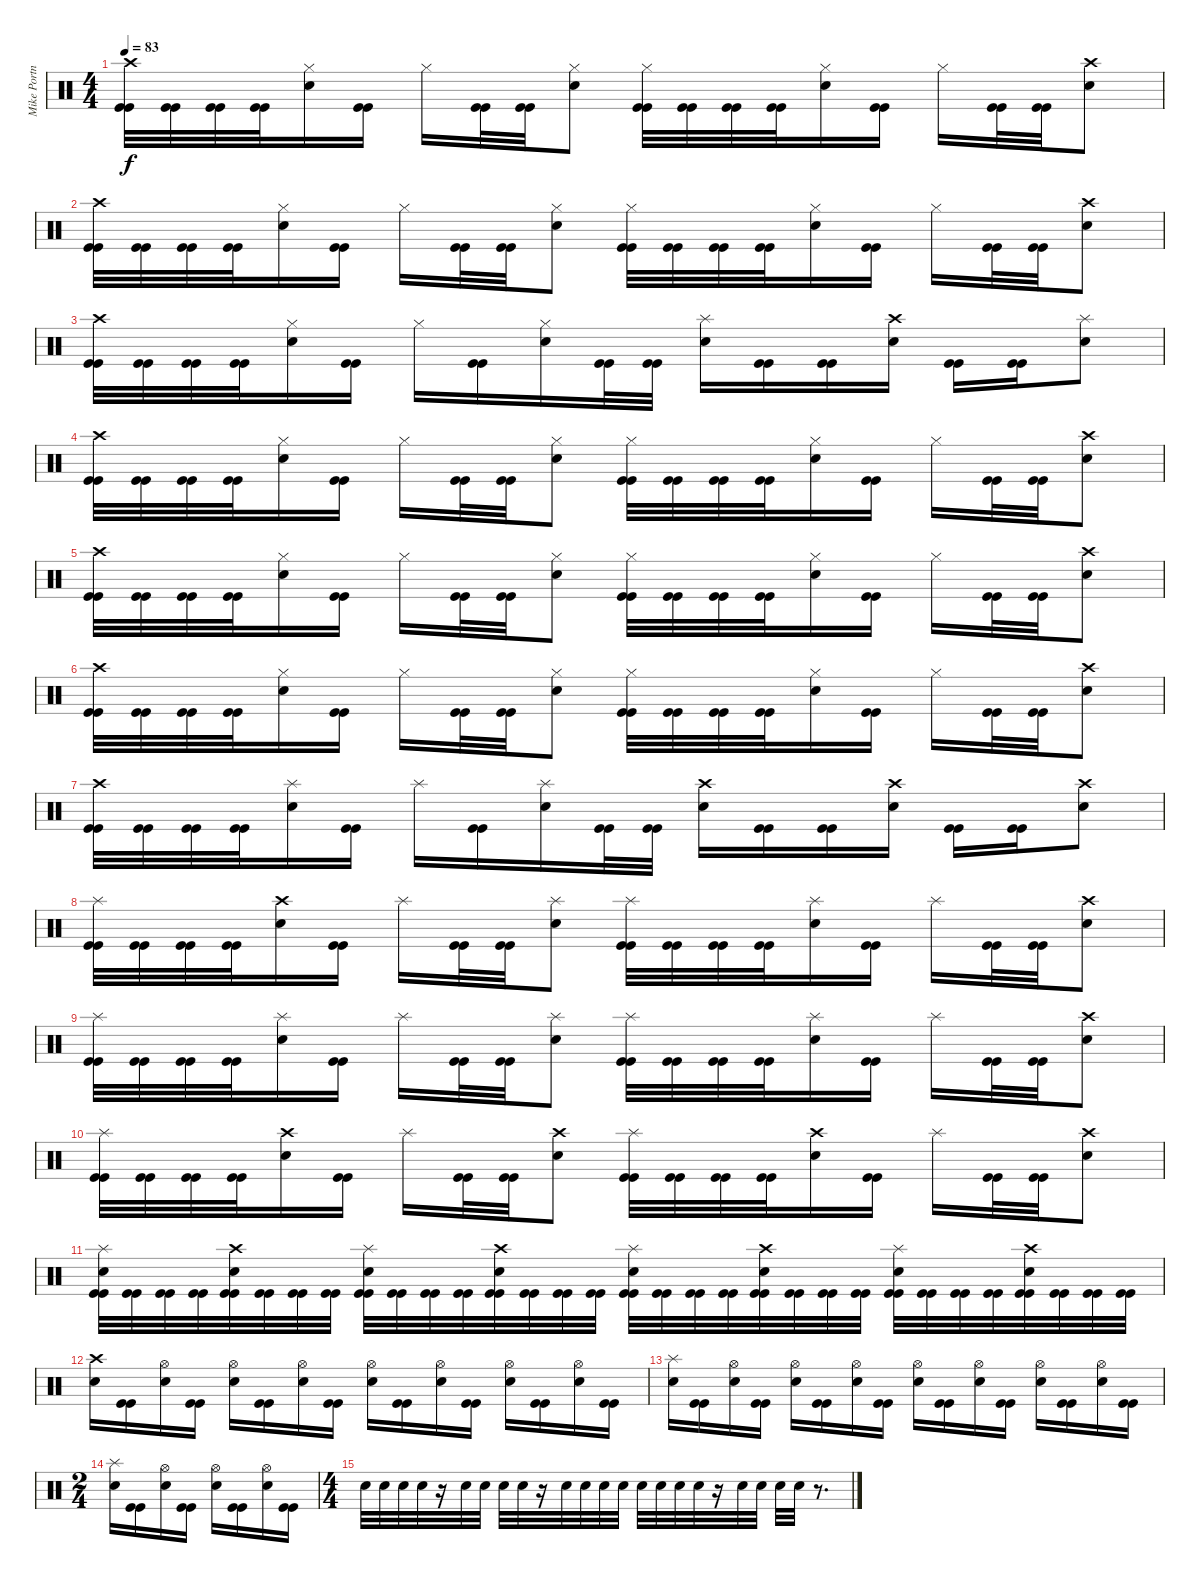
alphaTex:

\track ("Mike Portnoy - Drum" "Mike Portn") {instrument percussion}
\staff {score}
\articulation defaults
\ts (4 4)
\tempo 83
\clef neutral
\ks c
("Crash high (hit)" "Kick (hit)" "Kick (hit)").32{dy f} ("Kick (hit)" "Kick (hit)").32 ("Kick (hit)" "Kick (hit)").32 ("Kick (hit)" "Kick (hit)").32 ("Hi-Hat (closed)" "Snare (hit) 2").16 ("Kick (hit)" "Kick (hit)").16 "Hi-Hat (closed)".16 ("Kick (hit)" "Kick (hit)").32 ("Kick (hit)" "Kick (hit)").32 ("Hi-Hat (closed)" "Snare (hit) 2").8 ("Hi-Hat (closed)" "Kick (hit)" "Kick (hit)").32 ("Kick (hit)" "Kick (hit)").32 ("Kick (hit)" "Kick (hit)").32 ("Kick (hit)" "Kick (hit)").32 ("Hi-Hat (closed)" "Snare (hit) 2").16 ("Kick (hit)" "Kick (hit)").16 "Hi-Hat (closed)".16 ("Kick (hit)" "Kick (hit)").32 ("Kick (hit)" "Kick (hit)").32 ("Crash high (hit)" "Snare (hit) 2").8 |
("Crash high (hit)" "Kick (hit)" "Kick (hit)").32 ("Kick (hit)" "Kick (hit)").32 ("Kick (hit)" "Kick (hit)").32 ("Kick (hit)" "Kick (hit)").32 ("Hi-Hat (closed)" "Snare (hit) 2").16 ("Kick (hit)" "Kick (hit)").16 "Hi-Hat (closed)".16 ("Kick (hit)" "Kick (hit)").32 ("Kick (hit)" "Kick (hit)").32 ("Hi-Hat (closed)" "Snare (hit) 2").8 ("Hi-Hat (closed)" "Kick (hit)" "Kick (hit)").32 ("Kick (hit)" "Kick (hit)").32 ("Kick (hit)" "Kick (hit)").32 ("Kick (hit)" "Kick (hit)").32 ("Hi-Hat (closed)" "Snare (hit) 2").16 ("Kick (hit)" "Kick (hit)").16 "Hi-Hat (closed)".16 ("Kick (hit)" "Kick (hit)").32 ("Kick (hit)" "Kick (hit)").32 ("Crash high (hit)" "Snare (hit) 2").8 |
("Crash high (hit)" "Kick (hit)" "Kick (hit)").32 ("Kick (hit)" "Kick (hit)").32 ("Kick (hit)" "Kick (hit)").32 ("Kick (hit)" "Kick (hit)").32 ("Hi-Hat (closed)" "Snare (hit) 2").16 ("Kick (hit)" "Kick (hit)").16 "Hi-Hat (closed)".16 ("Kick (hit)" "Kick (hit)").16 ("Hi-Hat (closed)" "Snare (hit) 2").16 ("Kick (hit)" "Kick (hit)").32 ("Kick (hit)" "Kick (hit)").32 ("Splash (hit)" "Snare (hit) 2").16 ("Kick (hit)" "Kick (hit)").16 ("Kick (hit)" "Kick (hit)").16 ("Crash high (hit)" "Snare (hit) 2").16 ("Kick (hit)" "Kick (hit)").16 ("Kick (hit)" "Kick (hit)").16 ("Splash (hit)" "Snare (hit) 2").8 |
("Crash high (hit)" "Kick (hit)" "Kick (hit)").32 ("Kick (hit)" "Kick (hit)").32 ("Kick (hit)" "Kick (hit)").32 ("Kick (hit)" "Kick (hit)").32 ("Hi-Hat (closed)" "Snare (hit) 2").16 ("Kick (hit)" "Kick (hit)").16 "Hi-Hat (closed)".16 ("Kick (hit)" "Kick (hit)").32 ("Kick (hit)" "Kick (hit)").32 ("Hi-Hat (closed)" "Snare (hit) 2").8 ("Hi-Hat (closed)" "Kick (hit)" "Kick (hit)").32 ("Kick (hit)" "Kick (hit)").32 ("Kick (hit)" "Kick (hit)").32 ("Kick (hit)" "Kick (hit)").32 ("Hi-Hat (closed)" "Snare (hit) 2").16 ("Kick (hit)" "Kick (hit)").16 "Hi-Hat (closed)".16 ("Kick (hit)" "Kick (hit)").32 ("Kick (hit)" "Kick (hit)").32 ("Crash high (hit)" "Snare (hit) 2").8 |
("Crash high (hit)" "Kick (hit)" "Kick (hit)").32 ("Kick (hit)" "Kick (hit)").32 ("Kick (hit)" "Kick (hit)").32 ("Kick (hit)" "Kick (hit)").32 ("Hi-Hat (closed)" "Snare (hit) 2").16 ("Kick (hit)" "Kick (hit)").16 "Hi-Hat (closed)".16 ("Kick (hit)" "Kick (hit)").32 ("Kick (hit)" "Kick (hit)").32 ("Hi-Hat (closed)" "Snare (hit) 2").8 ("Hi-Hat (closed)" "Kick (hit)" "Kick (hit)").32 ("Kick (hit)" "Kick (hit)").32 ("Kick (hit)" "Kick (hit)").32 ("Kick (hit)" "Kick (hit)").32 ("Hi-Hat (closed)" "Snare (hit) 2").16 ("Kick (hit)" "Kick (hit)").16 "Hi-Hat (closed)".16 ("Kick (hit)" "Kick (hit)").32 ("Kick (hit)" "Kick (hit)").32 ("Crash high (hit)" "Snare (hit) 2").8 |
("Crash high (hit)" "Kick (hit)" "Kick (hit)").32 ("Kick (hit)" "Kick (hit)").32 ("Kick (hit)" "Kick (hit)").32 ("Kick (hit)" "Kick (hit)").32 ("Hi-Hat (closed)" "Snare (hit) 2").16 ("Kick (hit)" "Kick (hit)").16 "Hi-Hat (closed)".16 ("Kick (hit)" "Kick (hit)").32 ("Kick (hit)" "Kick (hit)").32 ("Hi-Hat (closed)" "Snare (hit) 2").8 ("Hi-Hat (closed)" "Kick (hit)" "Kick (hit)").32 ("Kick (hit)" "Kick (hit)").32 ("Kick (hit)" "Kick (hit)").32 ("Kick (hit)" "Kick (hit)").32 ("Hi-Hat (closed)" "Snare (hit) 2").16 ("Kick (hit)" "Kick (hit)").16 "Hi-Hat (closed)".16 ("Kick (hit)" "Kick (hit)").32 ("Kick (hit)" "Kick (hit)").32 ("Crash high (hit)" "Snare (hit) 2").8 |
("Crash high (hit)" "Kick (hit)" "Kick (hit)").32 ("Kick (hit)" "Kick (hit)").32 ("Kick (hit)" "Kick (hit)").32 ("Kick (hit)" "Kick (hit)").32 ("Splash (hit)" "Snare (hit) 2").16 ("Kick (hit)" "Kick (hit)").16 "Splash (hit)".16 ("Kick (hit)" "Kick (hit)").16 ("Splash (hit)" "Snare (hit) 2").16 ("Kick (hit)" "Kick (hit)").32 ("Kick (hit)" "Kick (hit)").32 ("Crash high (hit)" "Snare (hit) 2").16 ("Kick (hit)" "Kick (hit)").16 ("Kick (hit)" "Kick (hit)").16 ("Crash high (hit)" "Snare (hit) 2").16 ("Kick (hit)" "Kick (hit)").16 ("Kick (hit)" "Kick (hit)").16 ("Crash high (hit)" "Snare (hit) 2").8 |
("Splash (hit)" "Kick (hit)" "Kick (hit)").32 ("Kick (hit)" "Kick (hit)").32 ("Kick (hit)" "Kick (hit)").32 ("Kick (hit)" "Kick (hit)").32 ("Crash high (hit)" "Snare (hit) 2").16 ("Kick (hit)" "Kick (hit)").16 "Splash (hit)".16 ("Kick (hit)" "Kick (hit)").32 ("Kick (hit)" "Kick (hit)").32 ("Splash (hit)" "Snare (hit) 2").8 ("Splash (hit)" "Kick (hit)" "Kick (hit)").32 ("Kick (hit)" "Kick (hit)").32 ("Kick (hit)" "Kick (hit)").32 ("Kick (hit)" "Kick (hit)").32 ("Splash (hit)" "Snare (hit) 2").16 ("Kick (hit)" "Kick (hit)").16 "Splash (hit)".16 ("Kick (hit)" "Kick (hit)").32 ("Kick (hit)" "Kick (hit)").32 ("Crash high (hit)" "Snare (hit) 2").8 |
("Splash (hit)" "Kick (hit)" "Kick (hit)").32 ("Kick (hit)" "Kick (hit)").32 ("Kick (hit)" "Kick (hit)").32 ("Kick (hit)" "Kick (hit)").32 ("Splash (hit)" "Snare (hit) 2").16 ("Kick (hit)" "Kick (hit)").16 "Splash (hit)".16 ("Kick (hit)" "Kick (hit)").32 ("Kick (hit)" "Kick (hit)").32 ("Splash (hit)" "Snare (hit) 2").8 ("Splash (hit)" "Kick (hit)" "Kick (hit)").32 ("Kick (hit)" "Kick (hit)").32 ("Kick (hit)" "Kick (hit)").32 ("Kick (hit)" "Kick (hit)").32 ("Splash (hit)" "Snare (hit) 2").16 ("Kick (hit)" "Kick (hit)").16 "Splash (hit)".16 ("Kick (hit)" "Kick (hit)").32 ("Kick (hit)" "Kick (hit)").32 ("Crash high (hit)" "Snare (hit) 2").8 |
("Splash (hit)" "Kick (hit)" "Kick (hit)").32 ("Kick (hit)" "Kick (hit)").32 ("Kick (hit)" "Kick (hit)").32 ("Kick (hit)" "Kick (hit)").32 ("Crash high (hit)" "Snare (hit) 2").16 ("Kick (hit)" "Kick (hit)").16 "Splash (hit)".16 ("Kick (hit)" "Kick (hit)").32 ("Kick (hit)" "Kick (hit)").32 ("Crash high (hit)" "Snare (hit) 2").8 ("Splash (hit)" "Kick (hit)" "Kick (hit)").32 ("Kick (hit)" "Kick (hit)").32 ("Kick (hit)" "Kick (hit)").32 ("Kick (hit)" "Kick (hit)").32 ("Crash high (hit)" "Snare (hit) 2").16 ("Kick (hit)" "Kick (hit)").16 "Splash (hit)".16 ("Kick (hit)" "Kick (hit)").32 ("Kick (hit)" "Kick (hit)").32 ("Crash high (hit)" "Snare (hit) 2").8 |
("Splash (hit)" "Snare (hit) 2" "Kick (hit)" "Kick (hit)").32 ("Kick (hit)" "Kick (hit)").32 ("Kick (hit)" "Kick (hit)").32 ("Kick (hit)" "Kick (hit)").32 ("Crash high (hit)" "Snare (hit) 2" "Kick (hit)" "Kick (hit)").32 ("Kick (hit)" "Kick (hit)").32 ("Kick (hit)" "Kick (hit)").32 ("Kick (hit)" "Kick (hit)").32 ("Splash (hit)" "Snare (hit) 2" "Kick (hit)" "Kick (hit)").32 ("Kick (hit)" "Kick (hit)").32 ("Kick (hit)" "Kick (hit)").32 ("Kick (hit)" "Kick (hit)").32 ("Crash high (hit)" "Snare (hit) 2" "Kick (hit)" "Kick (hit)").32 ("Kick (hit)" "Kick (hit)").32 ("Kick (hit)" "Kick (hit)").32 ("Kick (hit)" "Kick (hit)").32 ("Splash (hit)" "Snare (hit) 2" "Kick (hit)" "Kick (hit)").32 ("Kick (hit)" "Kick (hit)").32 ("Kick (hit)" "Kick (hit)").32 ("Kick (hit)" "Kick (hit)").32 ("Crash high (hit)" "Snare (hit) 2" "Kick (hit)" "Kick (hit)").32 ("Kick (hit)" "Kick (hit)").32 ("Kick (hit)" "Kick (hit)").32 ("Kick (hit)" "Kick (hit)").32 ("Splash (hit)" "Snare (hit) 2" "Kick (hit)" "Kick (hit)").32 ("Kick (hit)" "Kick (hit)").32 ("Kick (hit)" "Kick (hit)").32 ("Kick (hit)" "Kick (hit)").32 ("Crash high (hit)" "Snare (hit) 2" "Kick (hit)" "Kick (hit)").32 ("Kick (hit)" "Kick (hit)").32 ("Kick (hit)" "Kick (hit)").32 ("Kick (hit)" "Kick (hit)").32 |
("Crash high (hit)" "Snare (hit) 2").16 ("Kick (hit)" "Kick (hit)").16 ("Hi-Hat (open)" "Snare (hit) 2").16 ("Kick (hit)" "Kick (hit)").16 ("Hi-Hat (open)" "Snare (hit) 2").16 ("Kick (hit)" "Kick (hit)").16 ("Hi-Hat (open)" "Snare (hit) 2").16 ("Kick (hit)" "Kick (hit)").16 ("Hi-Hat (open)" "Snare (hit) 2").16 ("Kick (hit)" "Kick (hit)").16 ("Hi-Hat (open)" "Snare (hit) 2").16 ("Kick (hit)" "Kick (hit)").16 ("Hi-Hat (open)" "Snare (hit) 2").16 ("Kick (hit)" "Kick (hit)").16 ("Hi-Hat (open)" "Snare (hit) 2").16 ("Kick (hit)" "Kick (hit)").16 |
("Splash (hit)" "Snare (hit) 2").16 ("Kick (hit)" "Kick (hit)").16 ("Hi-Hat (open)" "Snare (hit) 2").16 ("Kick (hit)" "Kick (hit)").16 ("Hi-Hat (open)" "Snare (hit) 2").16 ("Kick (hit)" "Kick (hit)").16 ("Hi-Hat (open)" "Snare (hit) 2").16 ("Kick (hit)" "Kick (hit)").16 ("Hi-Hat (open)" "Snare (hit) 2").16 ("Kick (hit)" "Kick (hit)").16 ("Hi-Hat (open)" "Snare (hit) 2").16 ("Kick (hit)" "Kick (hit)").16 ("Hi-Hat (open)" "Snare (hit) 2").16 ("Kick (hit)" "Kick (hit)").16 ("Hi-Hat (open)" "Snare (hit) 2").16 ("Kick (hit)" "Kick (hit)").16 |
\ts (2 4)
("Splash (hit)" "Snare (hit) 2").16 ("Kick (hit)" "Kick (hit)").16 ("Hi-Hat (open)" "Snare (hit) 2").16 ("Kick (hit)" "Kick (hit)").16 ("Hi-Hat (open)" "Snare (hit) 2").16 ("Kick (hit)" "Kick (hit)").16 ("Hi-Hat (open)" "Snare (hit) 2").16 ("Kick (hit)" "Kick (hit)").16 |
\ts (4 4)
"Snare (hit) 2".32 "Snare (hit) 2".32 "Snare (hit) 2".32 "Snare (hit) 2".32 r.16 "Snare (hit) 2".32 "Snare (hit) 2".32 "Snare (hit) 2".32 "Snare (hit) 2".32 r.16 "Snare (hit) 2".32 "Snare (hit) 2".32 "Snare (hit) 2".32 "Snare (hit) 2".32 "Snare (hit) 2".32 "Snare (hit) 2".32 "Snare (hit) 2".32 "Snare (hit) 2".32 r.16 "Snare (hit) 2".32 "Snare (hit) 2".32 "Snare (hit) 2".32 "Snare (hit) 2".32 r.8{d}
